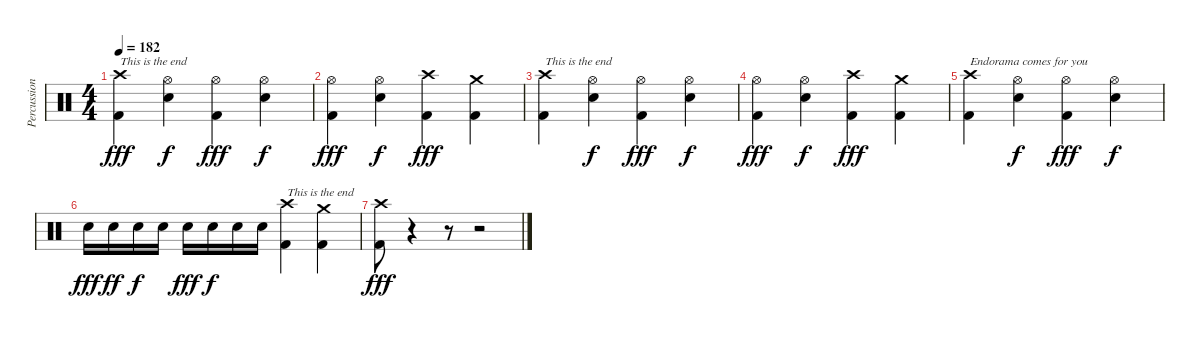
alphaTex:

\track ("Percussion" "Percussion") {instrument percussion}
\staff {score}
\articulation defaults
\ts (4 4)
\tempo 182
\clef neutral
\ks c
("Crash high (hit)" "Kick (hit) 2").4{txt "This is the end" dy fff} ("Hi-Hat (open)" "Snare (hit) 2").4{dy f} ("Hi-Hat (open)" "Kick (hit) 2").4{dy fff} ("Hi-Hat (open)" "Snare (hit) 2").4{dy f} |
("Hi-Hat (open)" "Kick (hit) 2").4{dy fff} ("Hi-Hat (open)" "Snare (hit) 2").4{dy f} ("Crash high (hit)" "Kick (hit) 2").4{dy fff} ("Crash medium (hit)" "Kick (hit) 2").4 |
("Crash high (hit)" "Kick (hit) 2").4{txt "This is the end"} ("Hi-Hat (open)" "Snare (hit) 2").4{dy f} ("Hi-Hat (open)" "Kick (hit) 2").4{dy fff} ("Hi-Hat (open)" "Snare (hit) 2").4{dy f} |
("Hi-Hat (open)" "Kick (hit) 2").4{dy fff} ("Hi-Hat (open)" "Snare (hit) 2").4{dy f} ("Crash high (hit)" "Kick (hit) 2").4{dy fff} ("Crash medium (hit)" "Kick (hit) 2").4 |
("Crash high (hit)" "Kick (hit) 2").4{txt "Endorama comes for you"} ("Hi-Hat (open)" "Snare (hit) 2").4{dy f} ("Hi-Hat (open)" "Kick (hit) 2").4{dy fff} ("Hi-Hat (open)" "Snare (hit) 2").4{dy f} |
"Snare (hit) 2".16{dy fff} "Snare (hit) 2".16{dy ff} "Snare (hit) 2".16{dy f} "Snare (hit) 2".16 "Snare (hit) 2".16{dy fff} "Snare (hit) 2".16{dy f} "Snare (hit) 2".16 "Snare (hit) 2".16 ("Crash high (hit)" "Kick (hit) 2").4{txt "This is the end"} ("Crash medium (hit)" "Kick (hit) 2").4 |
("Crash high (hit)" "Kick (hit) 2").8{dy fff} r.4 r.8 r.2
